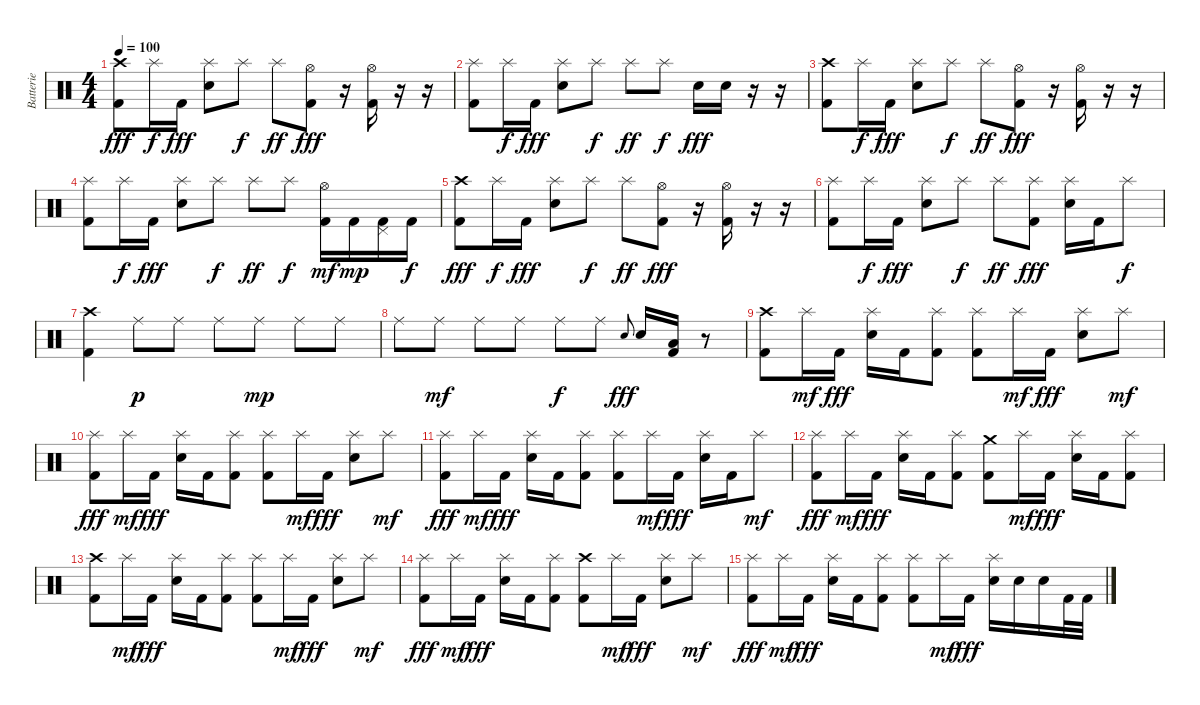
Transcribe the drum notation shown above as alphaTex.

\track ("Batterie" "Batterie") {instrument percussion}
\staff {score}
\articulation defaults
\ts (4 4)
\tempo 100
\clef neutral
\ks c
("Crash high (hit)" "Kick (hit) 2").8{dy fff} "Splash (hit)".16{dy f} "Kick (hit) 2".16{dy fff} ("Splash (hit)" "Electric Snare (hit)").8 "Splash (hit)".8{dy f} "Splash (hit)".8{dy ff} ("Hi-Hat (open)" "Kick (hit) 2").8{dy fff} r.16 ("Hi-Hat (open)" "Kick (hit) 2").16 r.16 r.16 |
("Splash (hit)" "Kick (hit) 2").8 "Splash (hit)".16{dy f} "Kick (hit) 2".16{dy fff} ("Splash (hit)" "Electric Snare (hit)").8 "Splash (hit)".8{dy f} "Splash (hit)".8{dy ff} "Splash (hit)".8{dy f} "Electric Snare (hit)".16{dy fff} "Electric Snare (hit)".16 r.16 r.16 |
("Crash high (hit)" "Kick (hit) 2").8 "Splash (hit)".16{dy f} "Kick (hit) 2".16{dy fff} ("Splash (hit)" "Electric Snare (hit)").8 "Splash (hit)".8{dy f} "Splash (hit)".8{dy ff} ("Hi-Hat (open)" "Kick (hit) 2").8{dy fff} r.16 ("Hi-Hat (open)" "Kick (hit) 2").16 r.16 r.16 |
("Splash (hit)" "Kick (hit) 2").8 "Splash (hit)".16{dy f} "Kick (hit) 2".16{dy fff} ("Splash (hit)" "Electric Snare (hit)").8 "Splash (hit)".8{dy f} "Splash (hit)".8{dy ff} "Splash (hit)".8{dy f} ("Hi-Hat (open)" "Kick (hit) 2").16{dy mf} "Kick (hit) 2".16{dy mp} ("Pedal Hi-Hat (hit)" "Kick (hit) 2").16 "Kick (hit) 2".16{dy f} |
("Crash high (hit)" "Kick (hit) 2").8{dy fff} "Splash (hit)".16{dy f} "Kick (hit) 2".16{dy fff} ("Splash (hit)" "Electric Snare (hit)").8 "Splash (hit)".8{dy f} "Splash (hit)".8{dy ff} ("Hi-Hat (open)" "Kick (hit) 2").8{dy fff} r.16 ("Hi-Hat (open)" "Kick (hit) 2").16 r.16 r.16 |
("Splash (hit)" "Kick (hit) 2").8 "Splash (hit)".16{dy f} "Kick (hit) 2".16{dy fff} ("Splash (hit)" "Electric Snare (hit)").8 "Splash (hit)".8{dy f} "Splash (hit)".8{dy ff} ("Splash (hit)" "Kick (hit) 2").8{dy fff} ("Splash (hit)" "Electric Snare (hit)").16 "Kick (hit) 2".16 "Splash (hit)".8{dy f} |
("Crash high (hit)" "Kick (hit) 2").4 "Ride (middle)".8{dy p} "Ride (middle)".8 "Ride (middle)".8 "Ride (middle)".8{dy mp} "Ride (middle)".8 "Ride (middle)".8 |
"Ride (middle)".8 "Ride (middle)".8{dy mf} "Ride (middle)".8 "Ride (middle)".8 "Ride (middle)".8{dy f} "Ride (middle)".8 "Electric Snare (hit)".8{gr onbeat dy fff} "Electric Snare (hit)".16 ("Kick (hit) 2" "Low Floor Tom (hit)").16 r.8 |
("Crash high (hit)" "Kick (hit) 2").8 "Splash (hit)".16{dy mf} "Kick (hit) 2".16{dy fff} ("Splash (hit)" "Electric Snare (hit)").16 "Kick (hit) 2".16 ("Splash (hit)" "Kick (hit) 2").8 ("Splash (hit)" "Kick (hit) 2").8 "Splash (hit)".16{dy mf} "Kick (hit) 2".16{dy fff} ("Splash (hit)" "Electric Snare (hit)").8 "Splash (hit)".8{dy mf} |
("Splash (hit)" "Kick (hit) 2").8{dy fff} "Splash (hit)".16{dy mf} "Kick (hit) 2".16{dy fff} ("Splash (hit)" "Electric Snare (hit)").16 "Kick (hit) 2".16 ("Splash (hit)" "Kick (hit) 2").8 ("Splash (hit)" "Kick (hit) 2").8 "Splash (hit)".16{dy mf} "Kick (hit) 2".16{dy fff} ("Splash (hit)" "Electric Snare (hit)").8 "Splash (hit)".8{dy mf} |
("Splash (hit)" "Kick (hit) 2").8{dy fff} "Splash (hit)".16{dy mf} "Kick (hit) 2".16{dy fff} ("Splash (hit)" "Electric Snare (hit)").16 "Kick (hit) 2".16 ("Splash (hit)" "Kick (hit) 2").8 ("Splash (hit)" "Kick (hit) 2").8 "Splash (hit)".16{dy mf} "Kick (hit) 2".16{dy fff} ("Splash (hit)" "Electric Snare (hit)").16 "Kick (hit) 2".16 "Splash (hit)".8{dy mf} |
("Splash (hit)" "Kick (hit) 2").8{dy fff} "Splash (hit)".16{dy mf} "Kick (hit) 2".16{dy fff} ("Splash (hit)" "Electric Snare (hit)").16 "Kick (hit) 2".16 ("Splash (hit)" "Kick (hit) 2").8 ("Crash medium (hit)" "Kick (hit) 2").8 "Splash (hit)".16{dy mf} "Kick (hit) 2".16{dy fff} ("Splash (hit)" "Electric Snare (hit)").16 "Kick (hit) 2".16 ("Splash (hit)" "Kick (hit) 2").8 |
("Crash high (hit)" "Kick (hit) 2").8 "Splash (hit)".16{dy mf} "Kick (hit) 2".16{dy fff} ("Splash (hit)" "Electric Snare (hit)").16 "Kick (hit) 2".16 ("Splash (hit)" "Kick (hit) 2").8 ("Splash (hit)" "Kick (hit) 2").8 "Splash (hit)".16{dy mf} "Kick (hit) 2".16{dy fff} ("Splash (hit)" "Electric Snare (hit)").8 "Splash (hit)".8{dy mf} |
("Splash (hit)" "Kick (hit) 2").8{dy fff} "Splash (hit)".16{dy mf} "Kick (hit) 2".16{dy fff} ("Splash (hit)" "Electric Snare (hit)").16 "Kick (hit) 2".16 ("Splash (hit)" "Kick (hit) 2").8 ("Crash high (hit)" "Kick (hit) 2").8 "Splash (hit)".16{dy mf} "Kick (hit) 2".16{dy fff} ("Splash (hit)" "Electric Snare (hit)").8 "Splash (hit)".8{dy mf} |
("Splash (hit)" "Kick (hit) 2").8{dy fff} "Splash (hit)".16{dy mf} "Kick (hit) 2".16{dy fff} ("Splash (hit)" "Electric Snare (hit)").16 "Kick (hit) 2".16 ("Splash (hit)" "Kick (hit) 2").8 ("Splash (hit)" "Kick (hit) 2").8 "Splash (hit)".16{dy mf} "Kick (hit) 2".16{dy fff} ("Splash (hit)" "Electric Snare (hit)").16 "Electric Snare (hit)".16 "Electric Snare (hit)".16 "Kick (hit) 2".32 "Kick (hit) 2".32
